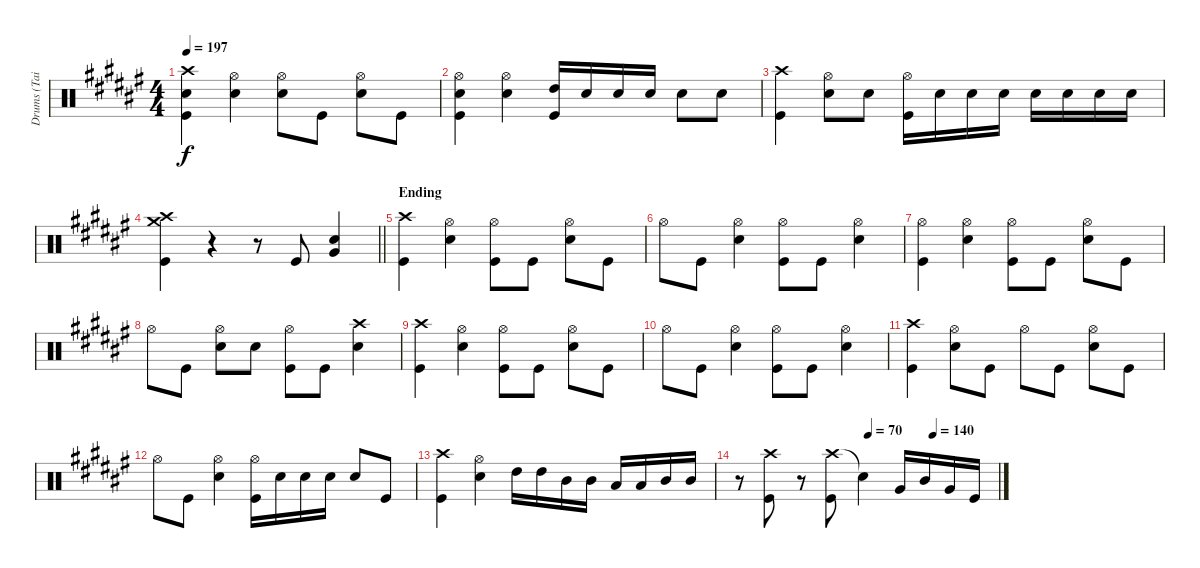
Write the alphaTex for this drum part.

\track ("Drums (Tainaka Ritsu)" "Drums (Tai") {instrument percussion}
\staff {score}
\articulation defaults
\ts (4 4)
\tempo 197
\clef neutral
\ks f#
("Crash high (hit)" "Snare (hit) 2" "Kick (hit)").4{dy f} ("Hi-Hat (open)" "Snare (hit) 2").4 ("Hi-Hat (open)" "Snare (hit) 2").8 "Kick (hit)".8 ("Hi-Hat (open)" "Snare (hit) 2").8 "Kick (hit)".8 |
("Hi-Hat (open)" "Snare (hit) 2" "Kick (hit)").4 ("Hi-Hat (open)" "Snare (hit) 2").4 ("High Tom (hit)" "Kick (hit)").16 "Snare (hit) 2".16 "Snare (hit) 2".16 "Snare (hit) 2".16 "Snare (hit) 2".8 "Snare (hit) 2".8 |
("Crash high (hit)" "Kick (hit)").4 ("Hi-Hat (open)" "Snare (hit) 2").8 "Snare (hit) 2".8 ("Hi-Hat (open)" "Kick (hit)").16 "Snare (hit) 2".16 "Snare (hit) 2".16 "Snare (hit) 2".16 "Snare (hit) 2".16 "Snare (hit) 2".16 "Snare (hit) 2".16 "Snare (hit) 2".16 |
\barLineRight lightlight
("Crash medium (hit)" "Crash high (hit)" "Kick (hit)").4 r.4 r.8 "Kick (hit)".8 ("Snare (hit) 2" "Very Low Tom (hit)").4 |
\section ("" "Ending")
("Crash high (hit)" "Kick (hit)").4 ("Hi-Hat (open)" "Snare (hit) 2").4 ("Hi-Hat (open)" "Kick (hit)").8 "Kick (hit)".8 ("Hi-Hat (open)" "Snare (hit) 2").8 "Kick (hit)".8 |
"Hi-Hat (open)".8 "Kick (hit)".8 ("Hi-Hat (open)" "Snare (hit) 2").4 ("Hi-Hat (open)" "Kick (hit)").8 "Kick (hit)".8 ("Hi-Hat (open)" "Snare (hit) 2").4 |
("Hi-Hat (open)" "Kick (hit)").4 ("Hi-Hat (open)" "Snare (hit) 2").4 ("Hi-Hat (open)" "Kick (hit)").8 "Kick (hit)".8 ("Hi-Hat (open)" "Snare (hit) 2").8 "Kick (hit)".8 |
"Hi-Hat (open)".8 "Kick (hit)".8 ("Hi-Hat (open)" "Snare (hit) 2").8 "Snare (hit) 2".8 ("Hi-Hat (open)" "Kick (hit)").8 "Kick (hit)".8 ("Crash high (hit)" "Snare (hit) 2").4 |
("Crash high (hit)" "Kick (hit)").4 ("Hi-Hat (open)" "Snare (hit) 2").4 ("Hi-Hat (open)" "Kick (hit)").8 "Kick (hit)".8 ("Hi-Hat (open)" "Snare (hit) 2").8 "Kick (hit)".8 |
"Hi-Hat (open)".8 "Kick (hit)".8 ("Hi-Hat (open)" "Snare (hit) 2").4 ("Hi-Hat (open)" "Kick (hit)").8 "Kick (hit)".8 ("Hi-Hat (open)" "Snare (hit) 2").4 |
("Crash high (hit)" "Kick (hit)").4 ("Hi-Hat (open)" "Snare (hit) 2").8 "Kick (hit)".8 "Hi-Hat (open)".8 "Kick (hit)".8 ("Hi-Hat (open)" "Snare (hit) 2").8 "Kick (hit)".8 |
"Hi-Hat (open)".8 "Kick (hit)".8 ("Hi-Hat (open)" "Snare (hit) 2").4 ("Hi-Hat (open)" "Kick (hit)").16 "Snare (hit) 2".16 "Snare (hit) 2".16 "Snare (hit) 2".16 "Snare (hit) 2".8 "Kick (hit)".8 |
("Crash high (hit)" "Kick (hit)").4 ("Hi-Hat (open)" "Snare (hit) 2").4 "High Tom (hit)".16 "High Tom (hit)".16 "Mid Tom (hit)".16 "Mid Tom (hit)".16 "Low Tom (hit)".16 "Low Tom (hit)".16 "Mid Tom (hit)".16 "Mid Tom (hit)".16 |
\tempo (70 0.5)
\tempo (140 0.75)
r.8 ("Crash high (hit)" "Kick (hit)").8 r.8 ("Crash high (hit)" "Kick (hit)").8 "Snare (hit)"{t}.4 "Very Low Tom (hit)".16 "Mid Tom (hit)".16 "Very Low Tom (hit)".16 "Kick (hit)".16
